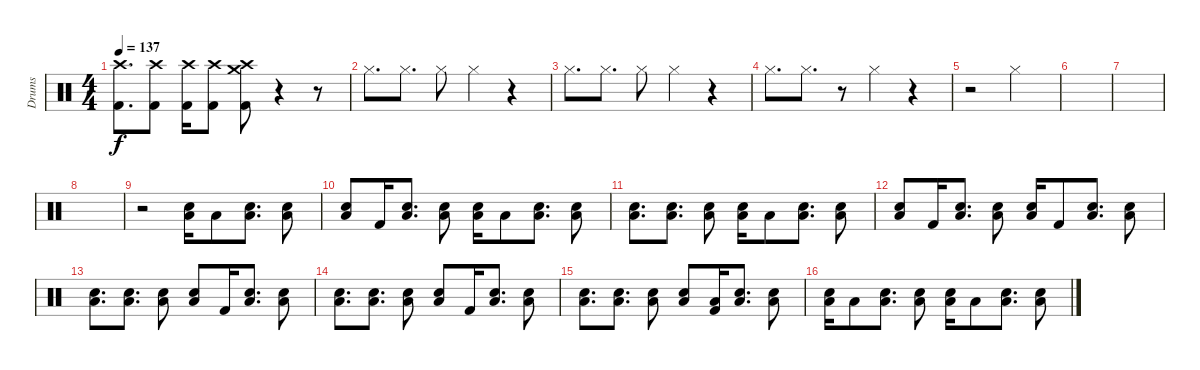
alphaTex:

\track ("Drums" "Drums") {instrument percussion}
\staff {score}
\articulation defaults
\ts (4 4)
\section ("" "")
\tempo 137
\clef neutral
\ks c
("Crash high (hit)" "Kick (hit) 2").8{d dy f} ("Crash high (hit)" "Kick (hit) 2").8 ("Crash high (hit)" "Kick (hit) 2").16 ("Crash high (hit)" "Kick (hit) 2").8 ("Crash high (hit)" "Crash medium (hit)" "Kick (hit) 2").8 r.4 r.8 |
"Hi-Hat (closed)".8{d} "Hi-Hat (closed)".8{d} "Hi-Hat (closed)".8 "Hi-Hat (closed)".4 r.4 |
"Hi-Hat (closed)".8{d} "Hi-Hat (closed)".8{d} "Hi-Hat (closed)".8 "Hi-Hat (closed)".4 r.4 |
"Hi-Hat (closed)".8{d} "Hi-Hat (closed)".8{d} r.8 "Hi-Hat (closed)".4 r.4 |
r.2 "Hi-Hat (closed)".2 |
|
|
|
r.2 ("Low Tom (hit)" "Electric Snare (hit)").16 "Low Tom (hit)".8 ("Low Tom (hit)" "Electric Snare (hit)").8{d} ("Low Tom (hit)" "Electric Snare (hit)").8 |
("Low Tom (hit)" "Electric Snare (hit)").8 "Kick (hit) 2".16 ("Low Tom (hit)" "Electric Snare (hit)").8{d} ("Low Tom (hit)" "Electric Snare (hit)").8 ("Low Tom (hit)" "Electric Snare (hit)").16 "Low Tom (hit)".8 ("Low Tom (hit)" "Electric Snare (hit)").8{d} ("Low Tom (hit)" "Electric Snare (hit)").8 |
("Low Tom (hit)" "Electric Snare (hit)").8{d} ("Low Tom (hit)" "Electric Snare (hit)").8{d} ("Low Tom (hit)" "Electric Snare (hit)").8 ("Low Tom (hit)" "Electric Snare (hit)").16 "Low Tom (hit)".8 ("Low Tom (hit)" "Electric Snare (hit)").8{d} ("Low Tom (hit)" "Electric Snare (hit)").8 |
("Low Tom (hit)" "Electric Snare (hit)").8 "Kick (hit) 2".16 ("Low Tom (hit)" "Electric Snare (hit)").8{d} ("Low Tom (hit)" "Electric Snare (hit)").8 ("Low Tom (hit)" "Electric Snare (hit)").16 "Kick (hit) 2".8 ("Low Tom (hit)" "Electric Snare (hit)").8{d} ("Low Tom (hit)" "Electric Snare (hit)").8 |
("Low Tom (hit)" "Electric Snare (hit)").8{d} ("Low Tom (hit)" "Electric Snare (hit)").8{d} ("Low Tom (hit)" "Electric Snare (hit)").8 ("Low Tom (hit)" "Electric Snare (hit)").8 "Kick (hit) 2".16 ("Low Tom (hit)" "Electric Snare (hit)").8{d} ("Low Tom (hit)" "Electric Snare (hit)").8 |
("Low Tom (hit)" "Electric Snare (hit)").8{d} ("Low Tom (hit)" "Electric Snare (hit)").8{d} ("Low Tom (hit)" "Electric Snare (hit)").8 ("Low Tom (hit)" "Electric Snare (hit)").8 "Kick (hit) 2".16 ("Low Tom (hit)" "Electric Snare (hit)").8{d} ("Low Tom (hit)" "Electric Snare (hit)").8 |
("Low Tom (hit)" "Electric Snare (hit)").8{d} ("Low Tom (hit)" "Electric Snare (hit)").8{d} ("Low Tom (hit)" "Electric Snare (hit)").8 ("Low Tom (hit)" "Electric Snare (hit)").8 ("Low Tom (hit)" "Kick (hit) 2").16 ("Low Tom (hit)" "Electric Snare (hit)").8{d} ("Low Tom (hit)" "Electric Snare (hit)").8 |
("Low Tom (hit)" "Electric Snare (hit)").16 "Low Tom (hit)".8 ("Low Tom (hit)" "Electric Snare (hit)").8{d} ("Low Tom (hit)" "Electric Snare (hit)").8 ("Low Tom (hit)" "Electric Snare (hit)").16 "Low Tom (hit)".8 ("Low Tom (hit)" "Electric Snare (hit)").8{d} ("Low Tom (hit)" "Electric Snare (hit)").8
